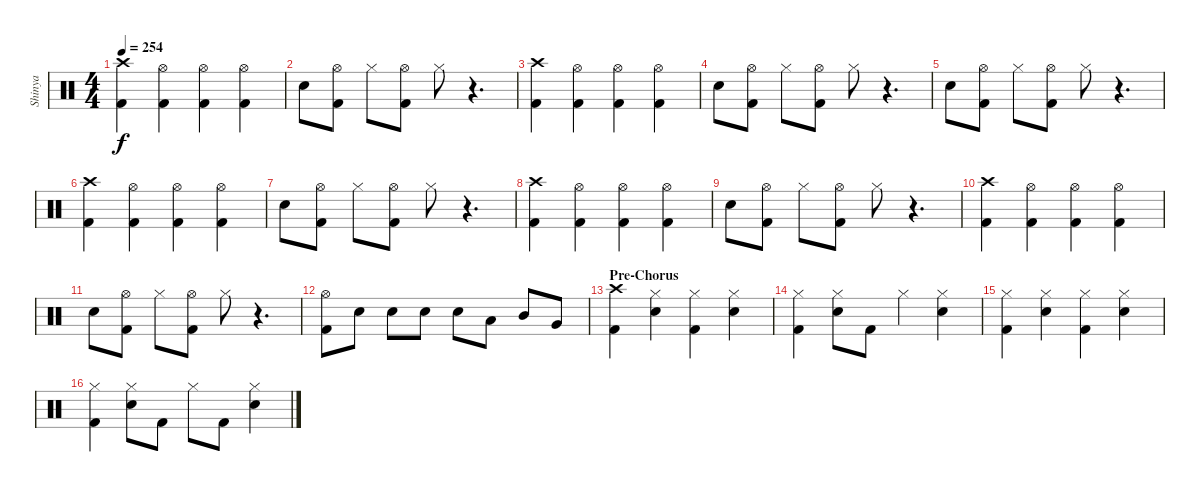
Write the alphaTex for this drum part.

\track ("Shinya" "Shinya") {instrument percussion}
\staff {score}
\articulation defaults
\ts (4 4)
\tempo 254
\clef neutral
\ks c
("Kick (hit) 2" "Crash high (hit)").4{dy f} ("Hi-Hat (open)" "Kick (hit) 2").4 ("Hi-Hat (open)" "Kick (hit) 2").4 ("Hi-Hat (open)" "Kick (hit) 2").4 |
"Electric Snare (hit)".8 ("Hi-Hat (open)" "Kick (hit) 2").8 "Hi-Hat (closed)".8 ("Hi-Hat (open)" "Kick (hit) 2").8 "Hi-Hat (closed)".8 r.4{d} |
("Kick (hit) 2" "Crash high (hit)").4 ("Hi-Hat (open)" "Kick (hit) 2").4 ("Hi-Hat (open)" "Kick (hit) 2").4 ("Hi-Hat (open)" "Kick (hit) 2").4 |
"Electric Snare (hit)".8 ("Hi-Hat (open)" "Kick (hit) 2").8 "Hi-Hat (closed)".8 ("Hi-Hat (open)" "Kick (hit) 2").8 "Hi-Hat (closed)".8 r.4{d} |
"Electric Snare (hit)".8 ("Hi-Hat (open)" "Kick (hit) 2").8 "Hi-Hat (closed)".8 ("Hi-Hat (open)" "Kick (hit) 2").8 "Hi-Hat (closed)".8 r.4{d} |
("Kick (hit) 2" "Crash high (hit)").4 ("Hi-Hat (open)" "Kick (hit) 2").4 ("Hi-Hat (open)" "Kick (hit) 2").4 ("Hi-Hat (open)" "Kick (hit) 2").4 |
"Electric Snare (hit)".8 ("Hi-Hat (open)" "Kick (hit) 2").8 "Hi-Hat (closed)".8 ("Hi-Hat (open)" "Kick (hit) 2").8 "Hi-Hat (closed)".8 r.4{d} |
("Kick (hit) 2" "Crash high (hit)").4 ("Hi-Hat (open)" "Kick (hit) 2").4 ("Hi-Hat (open)" "Kick (hit) 2").4 ("Hi-Hat (open)" "Kick (hit) 2").4 |
"Electric Snare (hit)".8 ("Hi-Hat (open)" "Kick (hit) 2").8 "Hi-Hat (closed)".8 ("Hi-Hat (open)" "Kick (hit) 2").8 "Hi-Hat (closed)".8 r.4{d} |
("Kick (hit) 2" "Crash high (hit)").4 ("Hi-Hat (open)" "Kick (hit) 2").4 ("Hi-Hat (open)" "Kick (hit) 2").4 ("Hi-Hat (open)" "Kick (hit) 2").4 |
"Electric Snare (hit)".8 ("Hi-Hat (open)" "Kick (hit) 2").8 "Hi-Hat (closed)".8 ("Hi-Hat (open)" "Kick (hit) 2").8 "Hi-Hat (closed)".8 r.4{d} |
("Hi-Hat (open)" "Kick (hit) 2").8 "Electric Snare (hit)".8 "Electric Snare (hit)".8 "Electric Snare (hit)".8 "Electric Snare (hit)".8 "Low Tom (hit)".8 "Mid Tom (hit)".8 "Very Low Tom (hit)".8 |
\section ("" "Pre-Chorus")
("Kick (hit) 2" "Crash high (hit)").4 ("Electric Snare (hit)" "Hi-Hat (closed)").4 ("Hi-Hat (closed)" "Kick (hit) 2").4 ("Electric Snare (hit)" "Hi-Hat (closed)").4 |
("Hi-Hat (closed)" "Kick (hit) 2").4 ("Hi-Hat (closed)" "Electric Snare (hit)").8 "Kick (hit) 2".8 "Hi-Hat (closed)".4 ("Electric Snare (hit)" "Hi-Hat (closed)").4 |
("Hi-Hat (closed)" "Kick (hit) 2").4 ("Electric Snare (hit)" "Hi-Hat (closed)").4 ("Hi-Hat (closed)" "Kick (hit) 2").4 ("Electric Snare (hit)" "Hi-Hat (closed)").4 |
("Hi-Hat (closed)" "Kick (hit) 2").4 ("Electric Snare (hit)" "Hi-Hat (closed)").8 "Kick (hit) 2".8 "Hi-Hat (closed)".8 "Kick (hit) 2".8 ("Electric Snare (hit)" "Hi-Hat (closed)").4
